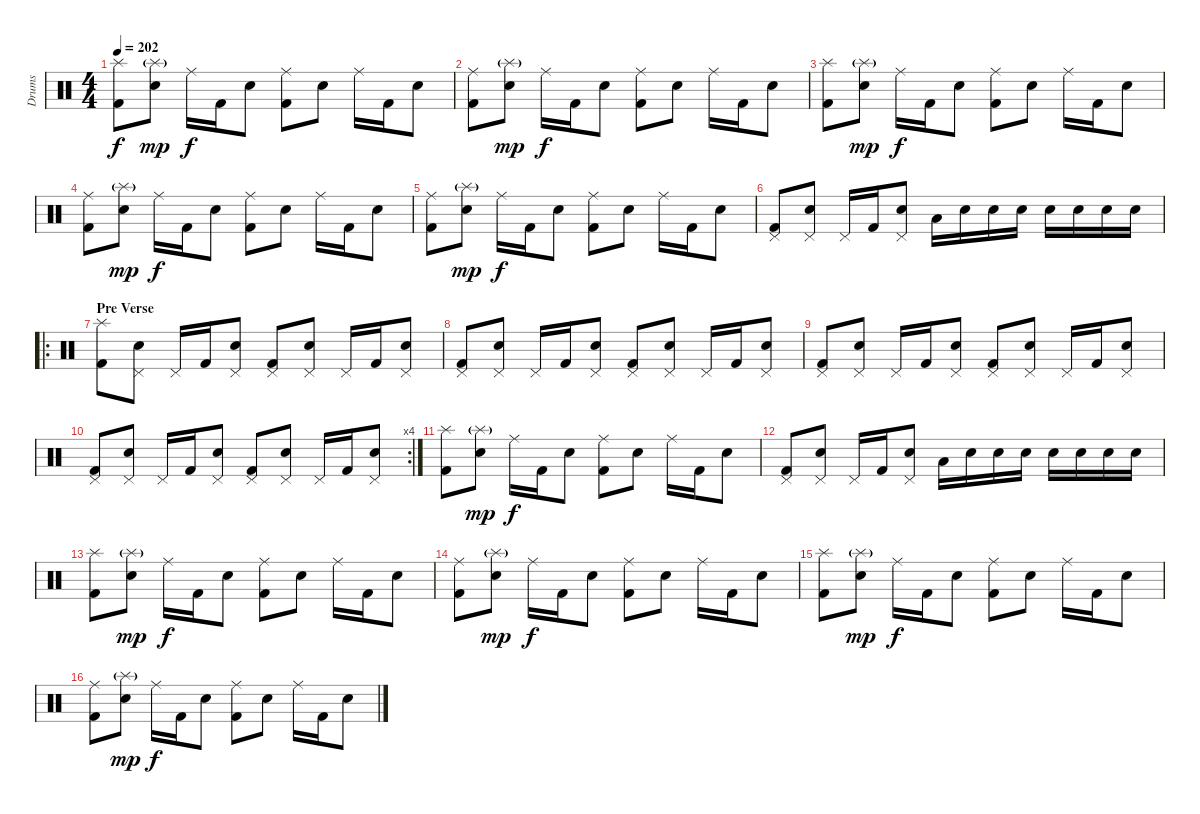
\track ("Drums" "Drums") {instrument percussion}
\staff {score}
\articulation defaults
\ts (4 4)
\tempo 202
\clef neutral
\ks c
("Splash (hit)" "Kick (hit) 2").8{dy f} ("Splash (hit)"{g} "Electric Snare (hit)").8{dy mp} "Ride (middle)".16{dy f} "Kick (hit) 2".16 "Electric Snare (hit)".8 ("Ride (middle)" "Kick (hit) 2").8 "Electric Snare (hit)".8 "Ride (middle)".16 "Kick (hit) 2".16 "Electric Snare (hit)".8 |
("Ride (middle)" "Kick (hit) 2").8 ("Splash (hit)"{g} "Electric Snare (hit)").8{dy mp} "Ride (middle)".16{dy f} "Kick (hit) 2".16 "Electric Snare (hit)".8 ("Ride (middle)" "Kick (hit) 2").8 "Electric Snare (hit)".8 "Ride (middle)".16 "Kick (hit) 2".16 "Electric Snare (hit)".8 |
("Splash (hit)" "Kick (hit) 2").8 ("Splash (hit)"{g} "Electric Snare (hit)").8{dy mp} "Ride (middle)".16{dy f} "Kick (hit) 2".16 "Electric Snare (hit)".8 ("Ride (middle)" "Kick (hit) 2").8 "Electric Snare (hit)".8 "Ride (middle)".16 "Kick (hit) 2".16 "Electric Snare (hit)".8 |
("Ride (middle)" "Kick (hit) 2").8 ("Splash (hit)"{g} "Electric Snare (hit)").8{dy mp} "Ride (middle)".16{dy f} "Kick (hit) 2".16 "Electric Snare (hit)".8 ("Ride (middle)" "Kick (hit) 2").8 "Electric Snare (hit)".8 "Ride (middle)".16 "Kick (hit) 2".16 "Electric Snare (hit)".8 |
("Ride (middle)" "Kick (hit) 2").8 ("Splash (hit)"{g} "Electric Snare (hit)").8{dy mp} "Ride (middle)".16{dy f} "Kick (hit) 2".16 "Electric Snare (hit)".8 ("Ride (middle)" "Kick (hit) 2").8 "Electric Snare (hit)".8 "Ride (middle)".16 "Kick (hit) 2".16 "Electric Snare (hit)".8 |
("Pedal Hi-Hat (hit)" "Kick (hit) 2").8 ("Pedal Hi-Hat (hit)" "Electric Snare (hit)").8 "Pedal Hi-Hat (hit)".16 "Kick (hit) 2".16 ("Pedal Hi-Hat (hit)" "Electric Snare (hit)").8 "Low Tom (hit)".16 "Electric Snare (hit)".16 "Electric Snare (hit)".16 "Electric Snare (hit)".16 "Electric Snare (hit)".16 "Electric Snare (hit)".16 "Electric Snare (hit)".16 "Electric Snare (hit)".16 |
\ro
\section ("" "Pre Verse")
("Splash (hit)" "Kick (hit) 2").8 ("Pedal Hi-Hat (hit)" "Electric Snare (hit)").8 "Pedal Hi-Hat (hit)".16 "Kick (hit) 2".16 ("Pedal Hi-Hat (hit)" "Electric Snare (hit)").8 ("Pedal Hi-Hat (hit)" "Kick (hit) 2").8 ("Pedal Hi-Hat (hit)" "Electric Snare (hit)").8 "Pedal Hi-Hat (hit)".16 "Kick (hit) 2".16 ("Pedal Hi-Hat (hit)" "Electric Snare (hit)").8 |
("Pedal Hi-Hat (hit)" "Kick (hit) 2").8 ("Pedal Hi-Hat (hit)" "Electric Snare (hit)").8 "Pedal Hi-Hat (hit)".16 "Kick (hit) 2".16 ("Pedal Hi-Hat (hit)" "Electric Snare (hit)").8 ("Pedal Hi-Hat (hit)" "Kick (hit) 2").8 ("Pedal Hi-Hat (hit)" "Electric Snare (hit)").8 "Pedal Hi-Hat (hit)".16 "Kick (hit) 2".16 ("Pedal Hi-Hat (hit)" "Electric Snare (hit)").8 |
("Pedal Hi-Hat (hit)" "Kick (hit) 2").8 ("Pedal Hi-Hat (hit)" "Electric Snare (hit)").8 "Pedal Hi-Hat (hit)".16 "Kick (hit) 2".16 ("Pedal Hi-Hat (hit)" "Electric Snare (hit)").8 ("Pedal Hi-Hat (hit)" "Kick (hit) 2").8 ("Pedal Hi-Hat (hit)" "Electric Snare (hit)").8 "Pedal Hi-Hat (hit)".16 "Kick (hit) 2".16 ("Pedal Hi-Hat (hit)" "Electric Snare (hit)").8 |
\rc 4
("Pedal Hi-Hat (hit)" "Kick (hit) 2").8 ("Pedal Hi-Hat (hit)" "Electric Snare (hit)").8 "Pedal Hi-Hat (hit)".16 "Kick (hit) 2".16 ("Pedal Hi-Hat (hit)" "Electric Snare (hit)").8 ("Pedal Hi-Hat (hit)" "Kick (hit) 2").8 ("Pedal Hi-Hat (hit)" "Electric Snare (hit)").8 "Pedal Hi-Hat (hit)".16 "Kick (hit) 2".16 ("Pedal Hi-Hat (hit)" "Electric Snare (hit)").8 |
("Splash (hit)" "Kick (hit) 2").8 ("Splash (hit)"{g} "Electric Snare (hit)").8{dy mp} "Ride (middle)".16{dy f} "Kick (hit) 2".16 "Electric Snare (hit)".8 ("Ride (middle)" "Kick (hit) 2").8 "Electric Snare (hit)".8 "Ride (middle)".16 "Kick (hit) 2".16 "Electric Snare (hit)".8 |
("Pedal Hi-Hat (hit)" "Kick (hit) 2").8 ("Pedal Hi-Hat (hit)" "Electric Snare (hit)").8 "Pedal Hi-Hat (hit)".16 "Kick (hit) 2".16 ("Pedal Hi-Hat (hit)" "Electric Snare (hit)").8 "Low Tom (hit)".16 "Electric Snare (hit)".16 "Electric Snare (hit)".16 "Electric Snare (hit)".16 "Electric Snare (hit)".16 "Electric Snare (hit)".16 "Electric Snare (hit)".16 "Electric Snare (hit)".16 |
("Splash (hit)" "Kick (hit) 2").8 ("Splash (hit)"{g} "Electric Snare (hit)").8{dy mp} "Ride (middle)".16{dy f} "Kick (hit) 2".16 "Electric Snare (hit)".8 ("Ride (middle)" "Kick (hit) 2").8 "Electric Snare (hit)".8 "Ride (middle)".16 "Kick (hit) 2".16 "Electric Snare (hit)".8 |
("Ride (middle)" "Kick (hit) 2").8 ("Splash (hit)"{g} "Electric Snare (hit)").8{dy mp} "Ride (middle)".16{dy f} "Kick (hit) 2".16 "Electric Snare (hit)".8 ("Ride (middle)" "Kick (hit) 2").8 "Electric Snare (hit)".8 "Ride (middle)".16 "Kick (hit) 2".16 "Electric Snare (hit)".8 |
("Splash (hit)" "Kick (hit) 2").8 ("Splash (hit)"{g} "Electric Snare (hit)").8{dy mp} "Ride (middle)".16{dy f} "Kick (hit) 2".16 "Electric Snare (hit)".8 ("Ride (middle)" "Kick (hit) 2").8 "Electric Snare (hit)".8 "Ride (middle)".16 "Kick (hit) 2".16 "Electric Snare (hit)".8 |
("Ride (middle)" "Kick (hit) 2").8 ("Splash (hit)"{g} "Electric Snare (hit)").8{dy mp} "Ride (middle)".16{dy f} "Kick (hit) 2".16 "Electric Snare (hit)".8 ("Ride (middle)" "Kick (hit) 2").8 "Electric Snare (hit)".8 "Ride (middle)".16 "Kick (hit) 2".16 "Electric Snare (hit)".8
